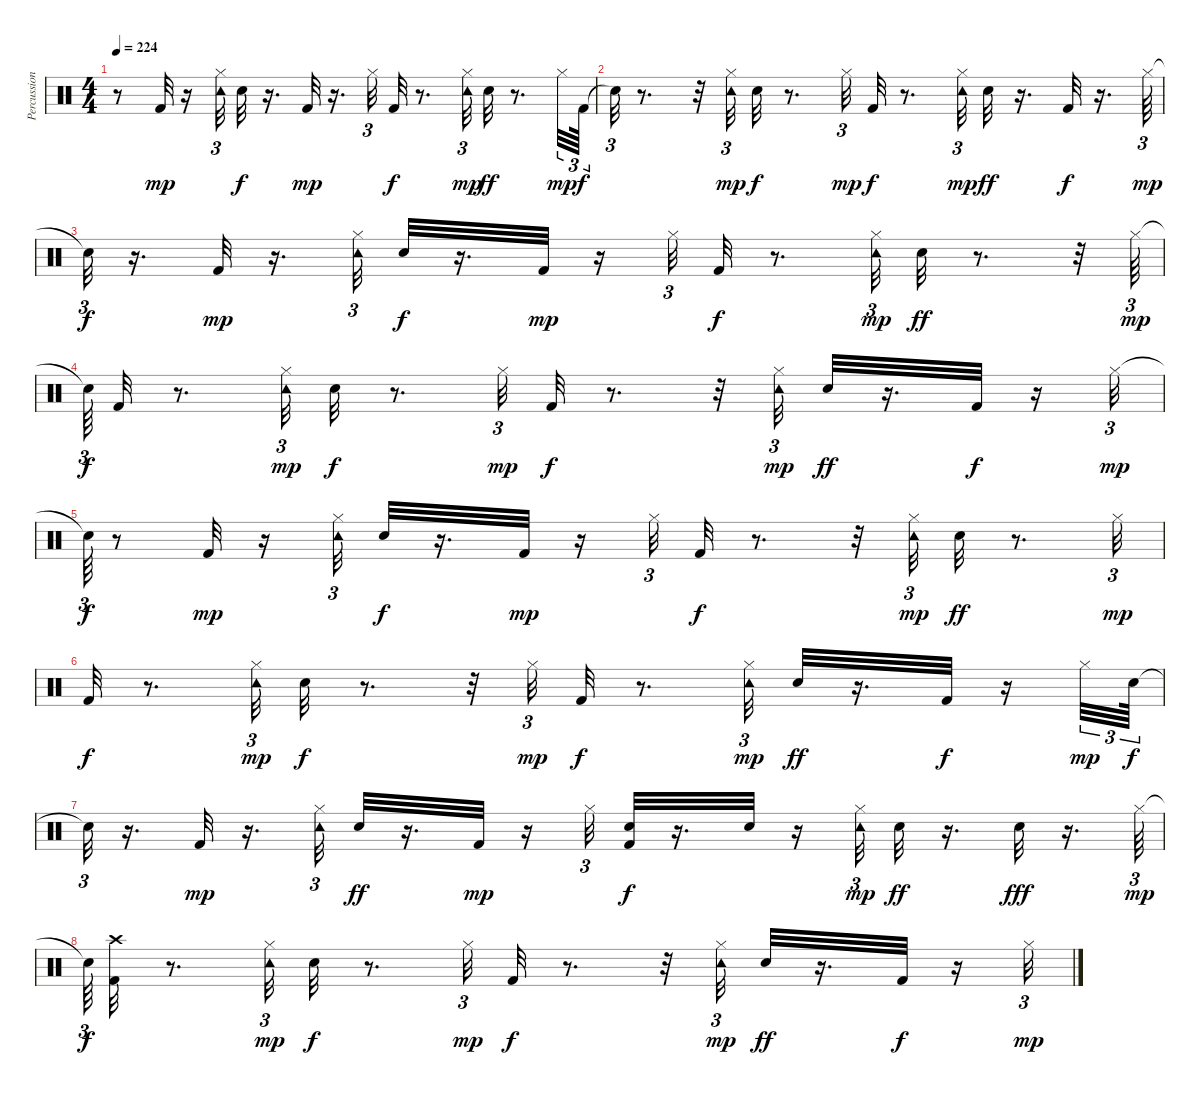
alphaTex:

\track ("Percussion" "Percussion") {instrument percussion}
\staff {score}
\articulation defaults
\ts (4 4)
\tempo 224
\clef neutral
\ks c
r.8{dy mp} "Kick (hit) 2".32 r.16 ("Tambourine (hit)" "Hi-Hat (closed)").32{tu (3 2)} "Snare (hit) 2".32{dy f} r.16{d} "Kick (hit) 2".32{dy mp} r.16{d} "Hi-Hat (closed)".32{tu (3 2)} "Kick (hit) 2".32{dy f} r.8{d} ("Tambourine (hit)" "Hi-Hat (closed)").32{tu (3 2) dy mp} "Snare (hit) 2".32{dy ff} r.8{d} "Hi-Hat (closed)".32{tu (3 2) dy mp} "Kick (hit) 2".64{tu (3 2) dy f} |
"Snare (hit)"{t}.32{tu (3 2)} r.8{d} r.32 ("Tambourine (hit)" "Hi-Hat (closed)").32{tu (3 2) dy mp} "Snare (hit) 2".32{dy f} r.8{d} "Hi-Hat (closed)".32{tu (3 2) dy mp} "Kick (hit) 2".32{dy f} r.8{d} ("Tambourine (hit)" "Hi-Hat (closed)").32{tu (3 2) dy mp} "Snare (hit) 2".32{dy ff} r.16{d} "Kick (hit) 2".32{dy f} r.16{d} "Hi-Hat (closed)".64{tu (3 2) dy mp} |
"Snare (hit)"{t}.32{tu (3 2) dy f} r.16{d} "Kick (hit) 2".32{dy mp} r.16{d} ("Tambourine (hit)" "Hi-Hat (closed)").32{tu (3 2)} "Snare (hit) 2".32{dy f} r.16{d} "Kick (hit) 2".32{dy mp} r.16 "Hi-Hat (closed)".32{tu (3 2)} "Kick (hit) 2".32{dy f} r.8{d} ("Tambourine (hit)" "Hi-Hat (closed)").32{tu (3 2) dy mp} "Snare (hit) 2".32{dy ff} r.8{d} r.32 "Hi-Hat (closed)".64{tu (3 2) dy mp} |
"Snare (hit)"{t}.64{tu (3 2) dy f} "Kick (hit) 2".32 r.8{d} ("Tambourine (hit)" "Hi-Hat (closed)").32{tu (3 2) dy mp} "Snare (hit) 2".32{dy f} r.8{d} "Hi-Hat (closed)".32{tu (3 2) dy mp} "Kick (hit) 2".32{dy f} r.8{d} r.32 ("Tambourine (hit)" "Hi-Hat (closed)").32{tu (3 2) dy mp} "Snare (hit) 2".32{dy ff} r.16{d} "Kick (hit) 2".32{dy f} r.16 "Hi-Hat (closed)".32{tu (3 2) dy mp} |
"Snare (hit)"{t}.64{tu (3 2) dy f} r.8 "Kick (hit) 2".32{dy mp} r.16 ("Tambourine (hit)" "Hi-Hat (closed)").32{tu (3 2)} "Snare (hit) 2".32{dy f} r.16{d} "Kick (hit) 2".32{dy mp} r.16 "Hi-Hat (closed)".32{tu (3 2)} "Kick (hit) 2".32{dy f} r.8{d} r.32 ("Tambourine (hit)" "Hi-Hat (closed)").32{tu (3 2) dy mp} "Snare (hit) 2".32{dy ff} r.8{d} "Hi-Hat (closed)".32{tu (3 2) dy mp} |
"Kick (hit) 2".32{dy f} r.8{d} ("Tambourine (hit)" "Hi-Hat (closed)").32{tu (3 2) dy mp} "Snare (hit) 2".32{dy f} r.8{d} r.32 "Hi-Hat (closed)".32{tu (3 2) dy mp} "Kick (hit) 2".32{dy f} r.8{d} ("Tambourine (hit)" "Hi-Hat (closed)").32{tu (3 2) dy mp} "Snare (hit) 2".32{dy ff} r.16{d} "Kick (hit) 2".32{dy f} r.16 "Hi-Hat (closed)".32{tu (3 2) dy mp} "Snare (hit) 2".64{tu (3 2) dy f} |
"Snare (hit)"{t}.32{tu (3 2)} r.16{d} "Kick (hit) 2".32{dy mp} r.16{d} ("Tambourine (hit)" "Hi-Hat (closed)").32{tu (3 2)} "Snare (hit) 2".32{dy ff} r.16{d} "Kick (hit) 2".32{dy mp} r.16 "Hi-Hat (closed)".32{tu (3 2)} ("Kick (hit) 2" "Snare (hit) 2").32{dy f} r.16{d} "Snare (hit) 2".32 r.16 ("Tambourine (hit)" "Hi-Hat (closed)").32{tu (3 2) dy mp} "Snare (hit) 2".32{dy ff} r.16{d} "Snare (hit) 2".32{dy fff} r.16{d} "Hi-Hat (closed)".64{tu (3 2) dy mp} |
"Snare (hit)"{t}.64{tu (3 2) dy f} ("Kick (hit) 2" "Crash high (hit)").32 r.8{d} ("Tambourine (hit)" "Hi-Hat (closed)").32{tu (3 2) dy mp} "Snare (hit) 2".32{dy f} r.8{d} "Hi-Hat (closed)".32{tu (3 2) dy mp} "Kick (hit) 2".32{dy f} r.8{d} r.32 ("Tambourine (hit)" "Hi-Hat (closed)").32{tu (3 2) dy mp} "Snare (hit) 2".32{dy ff} r.16{d} "Kick (hit) 2".32{dy f} r.16 "Hi-Hat (closed)".32{tu (3 2) dy mp}
